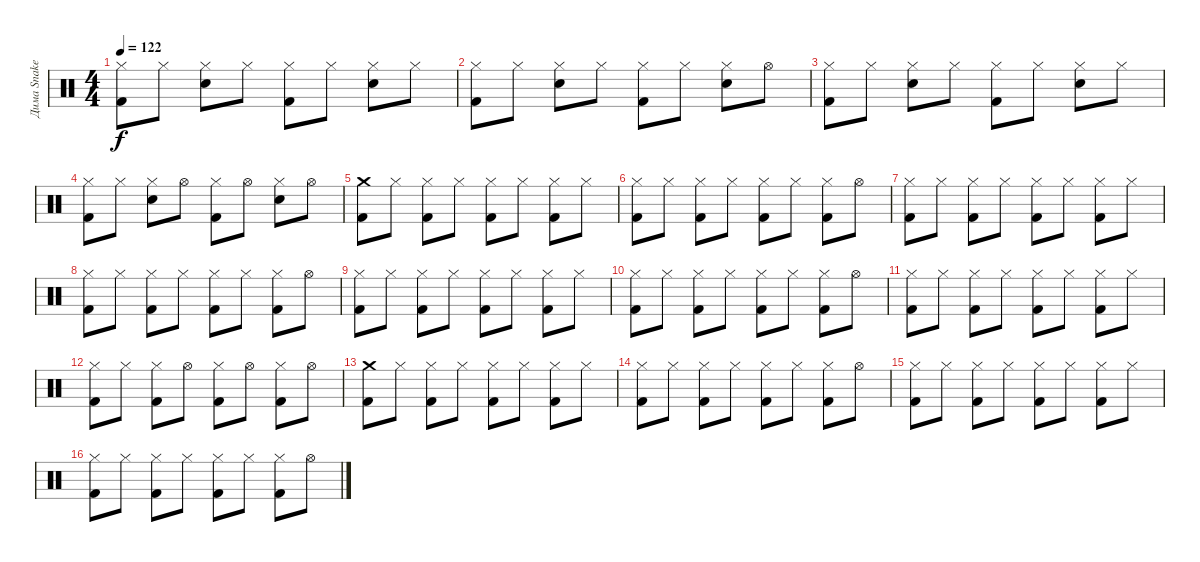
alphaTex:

\track ("Дима Snake Хакимов" "Дима Snake") {instrument percussion}
\staff {score}
\articulation defaults
\ts (4 4)
\tempo 122
\clef neutral
\ks c
("Hi-Hat (closed)" "Kick (hit) 2").8{dy f} "Hi-Hat (closed)".8 ("Hi-Hat (closed)" "Snare (hit) 2").8 "Hi-Hat (closed)".8 ("Hi-Hat (closed)" "Kick (hit) 2").8 "Hi-Hat (closed)".8 ("Hi-Hat (closed)" "Snare (hit) 2").8 "Hi-Hat (closed)".8 |
("Hi-Hat (closed)" "Kick (hit) 2").8 "Hi-Hat (closed)".8 ("Hi-Hat (closed)" "Snare (hit) 2").8 "Hi-Hat (closed)".8 ("Hi-Hat (closed)" "Kick (hit) 2").8 "Hi-Hat (closed)".8 ("Hi-Hat (closed)" "Snare (hit) 2").8 "Hi-Hat (open)".8 |
("Hi-Hat (closed)" "Kick (hit) 2").8 "Hi-Hat (closed)".8 ("Hi-Hat (closed)" "Snare (hit) 2").8 "Hi-Hat (closed)".8 ("Hi-Hat (closed)" "Kick (hit) 2").8 "Hi-Hat (closed)".8 ("Hi-Hat (closed)" "Snare (hit) 2").8 "Hi-Hat (closed)".8 |
("Hi-Hat (closed)" "Kick (hit) 2").8 "Hi-Hat (closed)".8 ("Hi-Hat (closed)" "Snare (hit) 2").8 "Hi-Hat (open)".8 ("Hi-Hat (closed)" "Kick (hit) 2").8 "Hi-Hat (open)".8 ("Hi-Hat (closed)" "Snare (hit) 2").8 "Hi-Hat (open)".8 |
("Crash medium (hit)" "Kick (hit) 2").8 "Hi-Hat (closed)".8 ("Hi-Hat (closed)" "Kick (hit) 2").8 "Hi-Hat (closed)".8 ("Hi-Hat (closed)" "Kick (hit) 2").8 "Hi-Hat (closed)".8 ("Hi-Hat (closed)" "Kick (hit) 2").8 "Hi-Hat (closed)".8 |
("Hi-Hat (closed)" "Kick (hit) 2").8 "Hi-Hat (closed)".8 ("Hi-Hat (closed)" "Kick (hit) 2").8 "Hi-Hat (closed)".8 ("Hi-Hat (closed)" "Kick (hit) 2").8 "Hi-Hat (closed)".8 ("Hi-Hat (closed)" "Kick (hit) 2").8 "Hi-Hat (open)".8 |
("Hi-Hat (closed)" "Kick (hit) 2").8 "Hi-Hat (closed)".8 ("Hi-Hat (closed)" "Kick (hit) 2").8 "Hi-Hat (closed)".8 ("Hi-Hat (closed)" "Kick (hit) 2").8 "Hi-Hat (closed)".8 ("Hi-Hat (closed)" "Kick (hit) 2").8 "Hi-Hat (closed)".8 |
("Hi-Hat (closed)" "Kick (hit) 2").8 "Hi-Hat (closed)".8 ("Hi-Hat (closed)" "Kick (hit) 2").8 "Hi-Hat (closed)".8 ("Hi-Hat (closed)" "Kick (hit) 2").8 "Hi-Hat (closed)".8 ("Hi-Hat (closed)" "Kick (hit) 2").8 "Hi-Hat (open)".8 |
("Hi-Hat (closed)" "Kick (hit) 2").8 "Hi-Hat (closed)".8 ("Hi-Hat (closed)" "Kick (hit) 2").8 "Hi-Hat (closed)".8 ("Hi-Hat (closed)" "Kick (hit) 2").8 "Hi-Hat (closed)".8 ("Hi-Hat (closed)" "Kick (hit) 2").8 "Hi-Hat (closed)".8 |
("Hi-Hat (closed)" "Kick (hit) 2").8 "Hi-Hat (closed)".8 ("Hi-Hat (closed)" "Kick (hit) 2").8 "Hi-Hat (closed)".8 ("Hi-Hat (closed)" "Kick (hit) 2").8 "Hi-Hat (closed)".8 ("Hi-Hat (closed)" "Kick (hit) 2").8 "Hi-Hat (open)".8 |
("Hi-Hat (closed)" "Kick (hit) 2").8 "Hi-Hat (closed)".8 ("Hi-Hat (closed)" "Kick (hit) 2").8 "Hi-Hat (closed)".8 ("Hi-Hat (closed)" "Kick (hit) 2").8 "Hi-Hat (closed)".8 ("Hi-Hat (closed)" "Kick (hit) 2").8 "Hi-Hat (closed)".8 |
("Hi-Hat (closed)" "Kick (hit) 2").8 "Hi-Hat (closed)".8 ("Hi-Hat (closed)" "Kick (hit) 2").8 "Hi-Hat (open)".8 ("Hi-Hat (closed)" "Kick (hit) 2").8 "Hi-Hat (open)".8 ("Hi-Hat (closed)" "Kick (hit) 2").8 "Hi-Hat (open)".8 |
("Crash medium (hit)" "Kick (hit) 2").8 "Hi-Hat (closed)".8 ("Hi-Hat (closed)" "Kick (hit) 2").8 "Hi-Hat (closed)".8 ("Hi-Hat (closed)" "Kick (hit) 2").8 "Hi-Hat (closed)".8 ("Hi-Hat (closed)" "Kick (hit) 2").8 "Hi-Hat (closed)".8 |
("Hi-Hat (closed)" "Kick (hit) 2").8 "Hi-Hat (closed)".8 ("Hi-Hat (closed)" "Kick (hit) 2").8 "Hi-Hat (closed)".8 ("Hi-Hat (closed)" "Kick (hit) 2").8 "Hi-Hat (closed)".8 ("Hi-Hat (closed)" "Kick (hit) 2").8 "Hi-Hat (open)".8 |
("Hi-Hat (closed)" "Kick (hit) 2").8 "Hi-Hat (closed)".8 ("Hi-Hat (closed)" "Kick (hit) 2").8 "Hi-Hat (closed)".8 ("Hi-Hat (closed)" "Kick (hit) 2").8 "Hi-Hat (closed)".8 ("Hi-Hat (closed)" "Kick (hit) 2").8 "Hi-Hat (closed)".8 |
("Hi-Hat (closed)" "Kick (hit) 2").8 "Hi-Hat (closed)".8 ("Hi-Hat (closed)" "Kick (hit) 2").8 "Hi-Hat (closed)".8 ("Hi-Hat (closed)" "Kick (hit) 2").8 "Hi-Hat (closed)".8 ("Hi-Hat (closed)" "Kick (hit) 2").8 "Hi-Hat (open)".8
